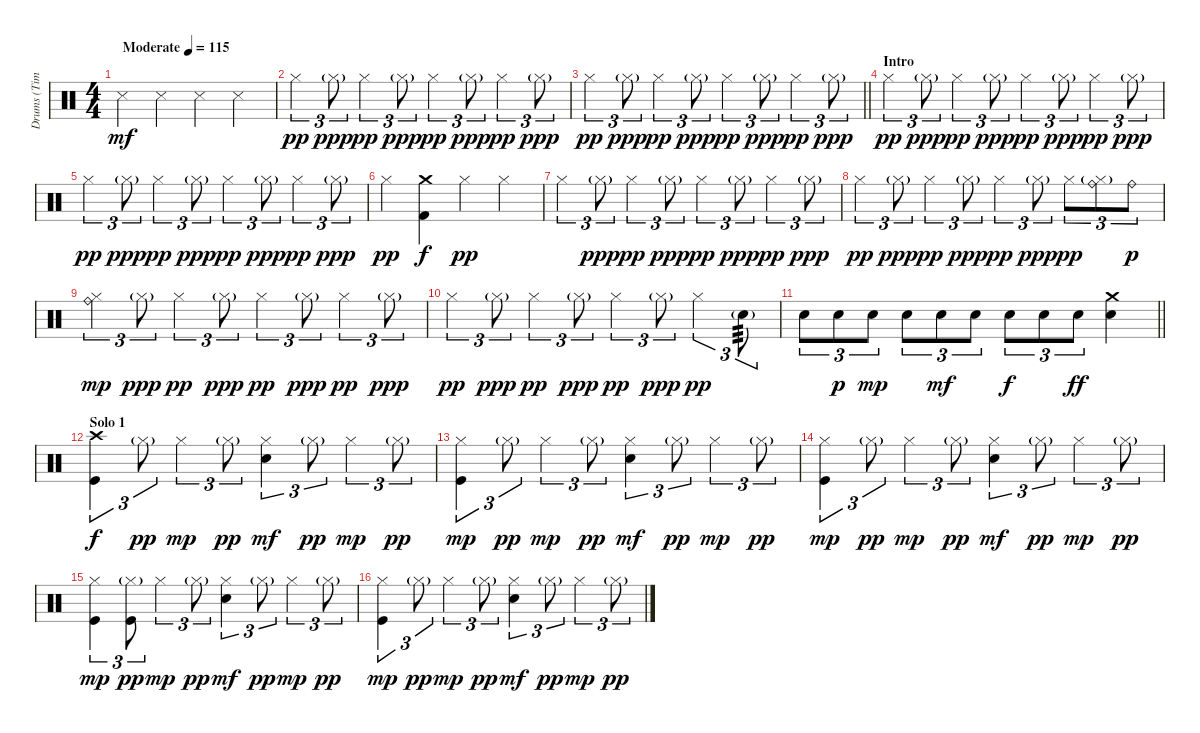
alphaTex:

\track ("Drums (Tim Alexander)" "Drums (Tim") {instrument percussion}
\staff {score}
\articulation defaults
\ts (4 4)
\tempo (115 "Moderate")
\clef neutral
\ks c "Snare (side stick) 3".4{dy mf} "Snare (side stick) 3".4 "Snare (side stick) 3".4 "Snare (side stick) 3".4
|
"Hi-Hat (closed)".4{tu (3 2) dy pp} "Hi-Hat (closed)"{g}.8{tu (3 2) dy ppp} "Hi-Hat (closed)".4{tu (3 2) dy pp} "Hi-Hat (closed)"{g}.8{tu (3 2) dy ppp} "Hi-Hat (closed)".4{tu (3 2) dy pp} "Hi-Hat (closed)"{g}.8{tu (3 2) dy ppp} "Hi-Hat (closed)".4{tu (3 2) dy pp} "Hi-Hat (closed)"{g}.8{tu (3 2) dy ppp} |
\barLineRight lightlight "Hi-Hat (closed)".4{tu (3 2) dy pp} "Hi-Hat (closed)"{g}.8{tu (3 2) dy ppp} "Hi-Hat (closed)".4{tu (3 2) dy pp} "Hi-Hat (closed)"{g}.8{tu (3 2) dy ppp} "Hi-Hat (closed)".4{tu (3 2) dy pp} "Hi-Hat (closed)"{g}.8{tu (3 2) dy ppp} "Hi-Hat (closed)".4{tu (3 2) dy pp} "Hi-Hat (closed)"{g}.8{tu (3 2) dy ppp}
|
\section ("" "Intro")
"Hi-Hat (closed)".4{tu (3 2) dy pp} "Hi-Hat (closed)"{g}.8{tu (3 2) dy ppp} "Hi-Hat (closed)".4{tu (3 2) dy pp} "Hi-Hat (closed)"{g}.8{tu (3 2) dy ppp} "Hi-Hat (closed)".4{tu (3 2) dy pp} "Hi-Hat (closed)"{g}.8{tu (3 2) dy ppp} "Hi-Hat (closed)".4{tu (3 2) dy pp} "Hi-Hat (closed)"{g}.8{tu (3 2) dy ppp} |
"Hi-Hat (closed)".4{tu (3 2) dy pp} "Hi-Hat (closed)"{g}.8{tu (3 2) dy ppp} "Hi-Hat (closed)".4{tu (3 2) dy pp} "Hi-Hat (closed)"{g}.8{tu (3 2) dy ppp} "Hi-Hat (closed)".4{tu (3 2) dy pp} "Hi-Hat (closed)"{g}.8{tu (3 2) dy ppp} "Hi-Hat (closed)".4{tu (3 2) dy pp} "Hi-Hat (closed)"{g}.8{tu (3 2) dy ppp} |
"Hi-Hat (closed)".4{dy pp} ("Crash medium (hit)" "Kick (hit) 2").4{dy f} "Hi-Hat (closed)".4{dy pp} "Hi-Hat (closed)".4 |
"Hi-Hat (closed)".4{tu (3 2)} "Hi-Hat (closed)"{g}.8{tu (3 2) dy ppp} "Hi-Hat (closed)".4{tu (3 2) dy pp} "Hi-Hat (closed)"{g}.8{tu (3 2) dy ppp} "Hi-Hat (closed)".4{tu (3 2) dy pp} "Hi-Hat (closed)"{g}.8{tu (3 2) dy ppp} "Hi-Hat (closed)".4{tu (3 2) dy pp} "Hi-Hat (closed)"{g}.8{tu (3 2) dy ppp} |
"Hi-Hat (closed)".4{tu (3 2) dy pp} "Hi-Hat (closed)"{g}.8{tu (3 2) dy ppp} "Hi-Hat (closed)".4{tu (3 2) dy pp} "Hi-Hat (closed)"{g}.8{tu (3 2) dy ppp} "Hi-Hat (closed)".4{tu (3 2) dy pp} "Hi-Hat (closed)"{g}.8{tu (3 2) dy ppp} "Hi-Hat (closed)".8{tu (3 2) dy pp} ("Hi-Hat (closed)"{g} "Ride (bell)").8{tu (3 2)} "Ride (bell)".8{tu (3 2) dy p} |
("Hi-Hat (closed)" "Ride (bell)").4{tu (3 2) dy mp} "Hi-Hat (closed)"{g}.8{tu (3 2) dy ppp} "Hi-Hat (closed)".4{tu (3 2) dy pp} "Hi-Hat (closed)"{g}.8{tu (3 2) dy ppp} "Hi-Hat (closed)".4{tu (3 2) dy pp} "Hi-Hat (closed)"{g}.8{tu (3 2) dy ppp} "Hi-Hat (closed)".4{tu (3 2) dy pp} "Hi-Hat (closed)"{g}.8{tu (3 2) dy ppp} |
"Hi-Hat (closed)".4{tu (3 2) dy pp} "Hi-Hat (closed)"{g}.8{tu (3 2) dy ppp} "Hi-Hat (closed)".4{tu (3 2) dy pp} "Hi-Hat (closed)"{g}.8{tu (3 2) dy ppp} "Hi-Hat (closed)".4{tu (3 2) dy pp} "Hi-Hat (closed)"{g}.8{tu (3 2) dy ppp} "Hi-Hat (closed)".4{tu (3 2) dy pp} "Electric Snare (hit)"{g}.8{tu (3 2) tp 3} |
\barLineRight lightlight "Electric Snare (hit)".8{tu (3 2)} "Electric Snare (hit)".8{tu (3 2) dy p} "Electric Snare (hit)".8{tu (3 2) dy mp} "Electric Snare (hit)".8{tu (3 2)} "Electric Snare (hit)".8{tu (3 2) dy mf} "Electric Snare (hit)".8{tu (3 2)} "Electric Snare (hit)".8{tu (3 2) dy f} "Electric Snare (hit)".8{tu (3 2)} "Electric Snare (hit)".8{tu (3 2) dy ff}
("Crash medium (hit)" "Electric Snare (hit)").4 |
\section ("" "Solo 1")
("Crash high (hit)" "Kick (hit)").4{tu (3 2) dy f} "Hi-Hat (closed)"{g}.8{tu (3 2) dy pp} "Hi-Hat (closed)".4{tu (3 2) dy mp} "Hi-Hat (closed)"{g}.8{tu (3 2) dy pp} ("Hi-Hat (closed)" "Electric Snare (hit)").4{tu (3 2) dy mf} "Hi-Hat (closed)"{g}.8{tu (3 2) dy pp} "Hi-Hat (closed)".4{tu (3 2) dy mp} "Hi-Hat (closed)"{g}.8{tu (3 2) dy pp} |
("Hi-Hat (closed)" "Kick (hit)").4{tu (3 2) dy mp} "Hi-Hat (closed)"{g}.8{tu (3 2) dy pp} "Hi-Hat (closed)".4{tu (3 2) dy mp} "Hi-Hat (closed)"{g}.8{tu (3 2) dy pp} ("Hi-Hat (closed)" "Electric Snare (hit)").4{tu (3 2) dy mf} "Hi-Hat (closed)"{g}.8{tu (3 2) dy pp} "Hi-Hat (closed)".4{tu (3 2) dy mp} "Hi-Hat (closed)"{g}.8{tu (3 2) dy pp} |
("Hi-Hat (closed)" "Kick (hit)").4{tu (3 2) dy mp} "Hi-Hat (closed)"{g}.8{tu (3 2) dy pp} "Hi-Hat (closed)".4{tu (3 2) dy mp} "Hi-Hat (closed)"{g}.8{tu (3 2) dy pp} ("Hi-Hat (closed)" "Electric Snare (hit)").4{tu (3 2) dy mf} "Hi-Hat (closed)"{g}.8{tu (3 2) dy pp} "Hi-Hat (closed)".4{tu (3 2) dy mp} "Hi-Hat (closed)"{g}.8{tu (3 2) dy pp} |
("Hi-Hat (closed)" "Kick (hit)").4{tu (3 2) dy mp} ("Hi-Hat (closed)"{g} "Kick (hit)").8{tu (3 2) dy pp} "Hi-Hat (closed)".4{tu (3 2) dy mp} "Hi-Hat (closed)"{g}.8{tu (3 2) dy pp} ("Hi-Hat (closed)" "Electric Snare (hit)").4{tu (3 2) dy mf} "Hi-Hat (closed)"{g}.8{tu (3 2) dy pp} "Hi-Hat (closed)".4{tu (3 2) dy mp} "Hi-Hat (closed)"{g}.8{tu (3 2) dy pp} |
("Hi-Hat (closed)" "Kick (hit)").4{tu (3 2) dy mp} "Hi-Hat (closed)"{g}.8{tu (3 2) dy pp} "Hi-Hat (closed)".4{tu (3 2) dy mp} "Hi-Hat (closed)"{g}.8{tu (3 2) dy pp} ("Hi-Hat (closed)" "Electric Snare (hit)").4{tu (3 2) dy mf} "Hi-Hat (closed)"{g}.8{tu (3 2) dy pp} "Hi-Hat (closed)".4{tu (3 2) dy mp} "Hi-Hat (closed)"{g}.8{tu (3 2) dy pp}
